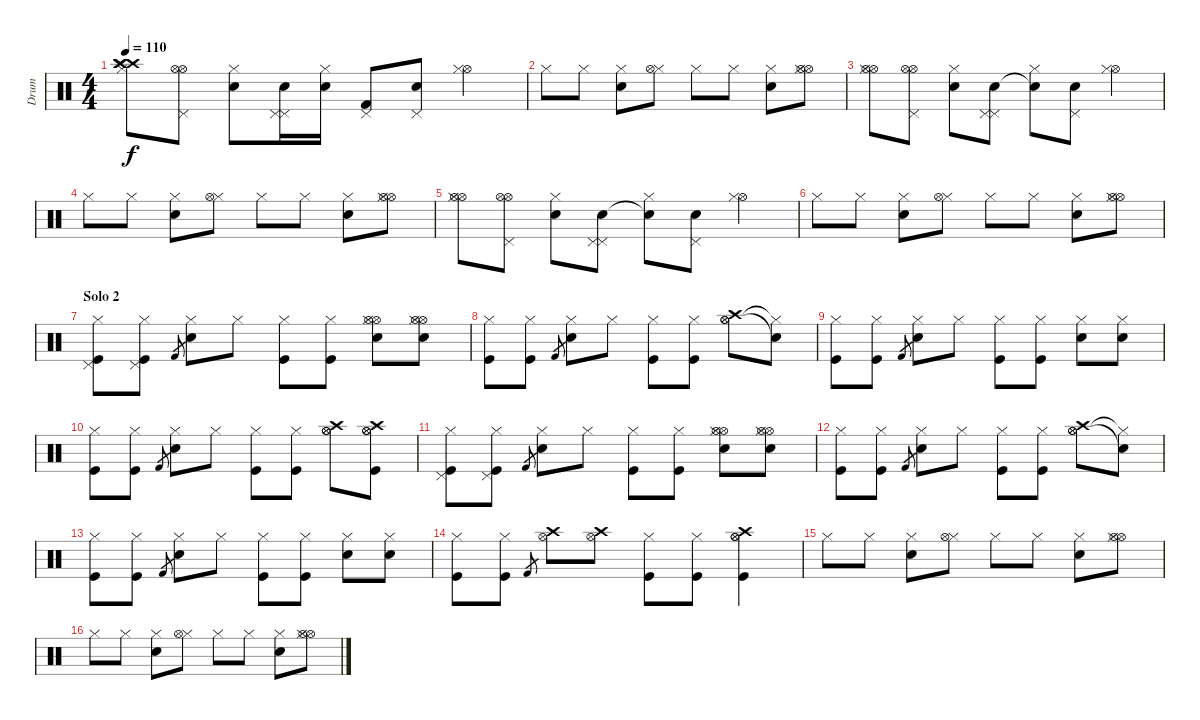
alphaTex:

\track ("Drum" "Drum") {instrument percussion}
\staff {score}
\articulation defaults
\ts (4 4)
\tempo 110
\clef neutral
\ks c
("Crash high (hit)" "Crash high (hit)" "Crash high (hit)" "Hi-Hat (closed)").8{dy f} ("Hi-Hat (open)" "Hi-Hat (open)" "Pedal Hi-Hat (hit)").8 ("Electric Snare (hit)" "Hi-Hat (closed)").8 ("Electric Snare (hit)" "Pedal Hi-Hat (hit)" "Pedal Hi-Hat (hit)").16 ("Hi-Hat (closed)" "Electric Snare (hit)").16 ("Pedal Hi-Hat (hit)" "Kick (hit) 2").8 ("Electric Snare (hit)" "Pedal Hi-Hat (hit)").8 ("Hi-Hat (open)" "Hi-Hat (closed)").4 |
"Hi-Hat (closed)".8 "Hi-Hat (closed)".8 ("Electric Snare (hit)" "Hi-Hat (closed)").8 ("Hi-Hat (closed)" "Hi-Hat (open)").8 "Hi-Hat (closed)".8 "Hi-Hat (closed)".8 ("Electric Snare (hit)" "Hi-Hat (closed)").8 ("Hi-Hat (open)" "Hi-Hat (closed)" "Hi-Hat (open)").8 |
("Hi-Hat (open)" "Hi-Hat (open)" "Hi-Hat (closed)").8 ("Hi-Hat (open)" "Hi-Hat (open)" "Pedal Hi-Hat (hit)").8 ("Electric Snare (hit)" "Hi-Hat (closed)").8 ("Electric Snare (hit)" "Pedal Hi-Hat (hit)" "Pedal Hi-Hat (hit)").8 ("Snare (hit)"{t} "Hi-Hat (closed)").8 ("Electric Snare (hit)" "Pedal Hi-Hat (hit)").8 ("Hi-Hat (open)" "Hi-Hat (closed)").4 |
"Hi-Hat (closed)".8 "Hi-Hat (closed)".8 ("Electric Snare (hit)" "Hi-Hat (closed)").8 ("Hi-Hat (closed)" "Hi-Hat (open)").8 "Hi-Hat (closed)".8 "Hi-Hat (closed)".8 ("Electric Snare (hit)" "Hi-Hat (closed)").8 ("Hi-Hat (open)" "Hi-Hat (closed)" "Hi-Hat (open)").8 |
("Hi-Hat (open)" "Hi-Hat (open)" "Hi-Hat (closed)").8 ("Hi-Hat (open)" "Hi-Hat (open)" "Pedal Hi-Hat (hit)").8 ("Electric Snare (hit)" "Hi-Hat (closed)").8 ("Electric Snare (hit)" "Pedal Hi-Hat (hit)" "Pedal Hi-Hat (hit)").8 ("Snare (hit)"{t} "Hi-Hat (closed)").8 ("Electric Snare (hit)" "Pedal Hi-Hat (hit)").8 ("Hi-Hat (open)" "Hi-Hat (closed)").4 |
"Hi-Hat (closed)".8 "Hi-Hat (closed)".8 ("Electric Snare (hit)" "Hi-Hat (closed)").8 ("Hi-Hat (closed)" "Hi-Hat (open)").8 "Hi-Hat (closed)".8 "Hi-Hat (closed)".8 ("Electric Snare (hit)" "Hi-Hat (closed)").8 ("Hi-Hat (open)" "Hi-Hat (closed)" "Hi-Hat (open)").8 |
\section ("" "Solo 2")
("Kick (hit)" "Hi-Hat (closed)" "Pedal Hi-Hat (hit)").8 ("Kick (hit)" "Hi-Hat (closed)" "Pedal Hi-Hat (hit)").8 "Kick (hit) 2".8{gr} ("Electric Snare (hit)" "Hi-Hat (closed)").8 "Hi-Hat (closed)".8 ("Kick (hit)" "Hi-Hat (closed)").8 ("Kick (hit)" "Hi-Hat (closed)").8 ("Hi-Hat (open)" "Hi-Hat (open)" "Electric Snare (hit)" "Hi-Hat (closed)").8 ("Hi-Hat (open)" "Hi-Hat (open)" "Electric Snare (hit)" "Hi-Hat (closed)").8 |
("Kick (hit)" "Hi-Hat (closed)").8 ("Kick (hit)" "Hi-Hat (closed)").8 "Kick (hit) 2".8{gr} ("Electric Snare (hit)" "Hi-Hat (closed)").8 "Hi-Hat (closed)".8 ("Kick (hit)" "Hi-Hat (closed)").8 ("Kick (hit)" "Hi-Hat (closed)").8 ("Hi-Hat (open)" "Hi-Hat (open)" "Crash high (hit)").8 ("Electric Snare (hit)"{t} "Hi-Hat (closed)"{t}).8 |
("Kick (hit)" "Hi-Hat (closed)").8 ("Kick (hit)" "Hi-Hat (closed)").8 "Kick (hit) 2".8{gr} ("Electric Snare (hit)" "Hi-Hat (closed)").8 "Hi-Hat (closed)".8 ("Kick (hit)" "Hi-Hat (closed)").8 ("Kick (hit)" "Hi-Hat (closed)").8 ("Electric Snare (hit)" "Hi-Hat (closed)").8 ("Electric Snare (hit)" "Hi-Hat (closed)").8 |
("Kick (hit)" "Hi-Hat (closed)").8 ("Kick (hit)" "Hi-Hat (closed)").8 "Kick (hit) 2".8{gr} ("Electric Snare (hit)" "Hi-Hat (closed)").8 "Hi-Hat (closed)".8 ("Kick (hit)" "Hi-Hat (closed)").8 ("Kick (hit)" "Hi-Hat (closed)").8 ("Hi-Hat (open)" "Hi-Hat (open)" "Crash high (hit)").8 ("Kick (hit)" "Hi-Hat (open)" "Hi-Hat (open)" "Crash high (hit)").8 |
("Kick (hit)" "Hi-Hat (closed)" "Pedal Hi-Hat (hit)").8 ("Kick (hit)" "Hi-Hat (closed)" "Pedal Hi-Hat (hit)").8 "Kick (hit) 2".8{gr} ("Electric Snare (hit)" "Hi-Hat (closed)").8 "Hi-Hat (closed)".8 ("Kick (hit)" "Hi-Hat (closed)").8 ("Kick (hit)" "Hi-Hat (closed)").8 ("Hi-Hat (open)" "Hi-Hat (open)" "Electric Snare (hit)" "Hi-Hat (closed)").8 ("Hi-Hat (open)" "Hi-Hat (open)" "Electric Snare (hit)" "Hi-Hat (closed)").8 |
("Kick (hit)" "Hi-Hat (closed)").8 ("Kick (hit)" "Hi-Hat (closed)").8 "Kick (hit) 2".8{gr} ("Electric Snare (hit)" "Hi-Hat (closed)").8 "Hi-Hat (closed)".8 ("Kick (hit)" "Hi-Hat (closed)").8 ("Kick (hit)" "Hi-Hat (closed)").8 ("Hi-Hat (open)" "Hi-Hat (open)" "Crash high (hit)").8 ("Electric Snare (hit)"{t} "Hi-Hat (closed)"{t}).8 |
("Kick (hit)" "Hi-Hat (closed)").8 ("Kick (hit)" "Hi-Hat (closed)").8 "Kick (hit) 2".8{gr} ("Electric Snare (hit)" "Hi-Hat (closed)").8 "Hi-Hat (closed)".8 ("Kick (hit)" "Hi-Hat (closed)").8 ("Kick (hit)" "Hi-Hat (closed)").8 ("Electric Snare (hit)" "Hi-Hat (closed)").8 ("Electric Snare (hit)" "Hi-Hat (closed)").8 |
("Kick (hit)" "Hi-Hat (closed)").8 ("Kick (hit)" "Hi-Hat (closed)").8 "Kick (hit) 2".8{gr} ("Crash high (hit)" "Hi-Hat (open)").8 ("Crash high (hit)" "Hi-Hat (open)").8 ("Kick (hit)" "Hi-Hat (closed)").8 ("Kick (hit)" "Hi-Hat (closed)").8 ("Kick (hit)" "Hi-Hat (open)" "Hi-Hat (open)" "Crash high (hit)").4 |
"Hi-Hat (closed)".8 "Hi-Hat (closed)".8 ("Electric Snare (hit)" "Hi-Hat (closed)").8 ("Hi-Hat (closed)" "Hi-Hat (open)").8 "Hi-Hat (closed)".8 "Hi-Hat (closed)".8 ("Electric Snare (hit)" "Hi-Hat (closed)").8 ("Hi-Hat (open)" "Hi-Hat (closed)" "Hi-Hat (open)").8 |
"Hi-Hat (closed)".8 "Hi-Hat (closed)".8 ("Electric Snare (hit)" "Hi-Hat (closed)").8 ("Hi-Hat (closed)" "Hi-Hat (open)").8 "Hi-Hat (closed)".8 "Hi-Hat (closed)".8 ("Electric Snare (hit)" "Hi-Hat (closed)").8 ("Hi-Hat (open)" "Hi-Hat (closed)" "Hi-Hat (open)").8
